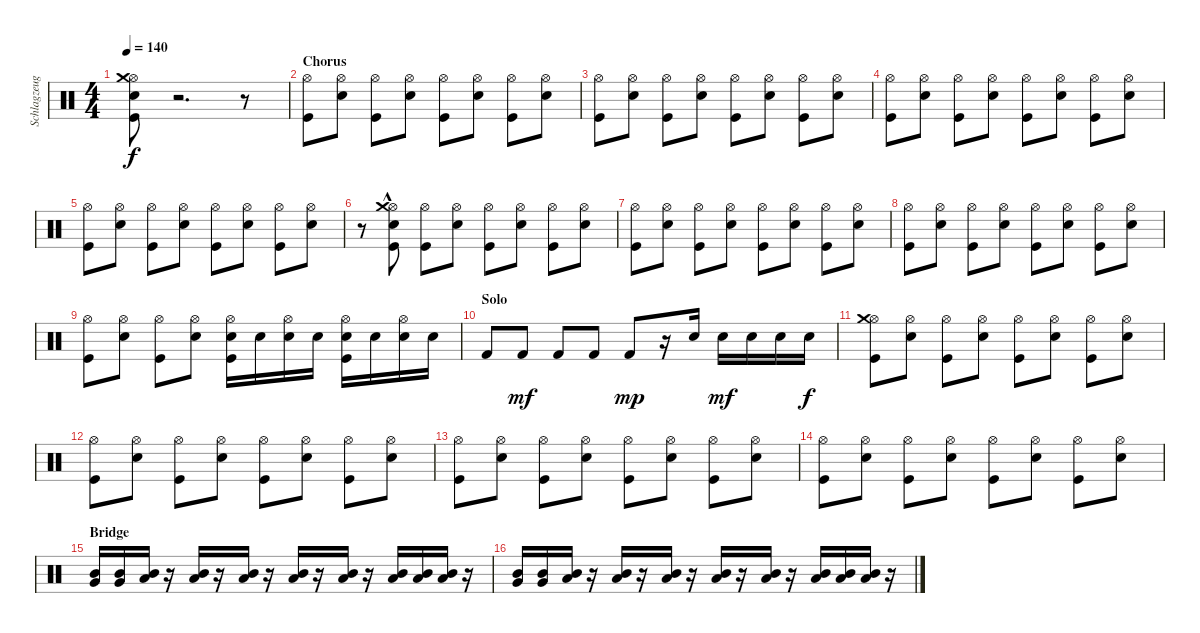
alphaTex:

\track ("Schlagzeug - Bela B." "Schlagzeug") {instrument percussion}
\staff {score}
\articulation defaults
\ts (4 4)
\tempo 140
\clef neutral
\ks c
("Kick (hit)" "Hi-Hat (open)" "Electric Snare (hit)" "Crash medium (hit)").8{dy f} r.2{d} r.8 |
\section ("" "Chorus")
("Kick (hit)" "Hi-Hat (open)").8 ("Hi-Hat (open)" "Electric Snare (hit)").8 ("Hi-Hat (open)" "Kick (hit)").8 ("Hi-Hat (open)" "Electric Snare (hit)").8 ("Kick (hit)" "Hi-Hat (open)").8 ("Hi-Hat (open)" "Electric Snare (hit)").8 ("Hi-Hat (open)" "Kick (hit)").8 ("Hi-Hat (open)" "Electric Snare (hit)").8 |
("Kick (hit)" "Hi-Hat (open)").8 ("Hi-Hat (open)" "Electric Snare (hit)").8 ("Hi-Hat (open)" "Kick (hit)").8 ("Hi-Hat (open)" "Electric Snare (hit)").8 ("Kick (hit)" "Hi-Hat (open)").8 ("Hi-Hat (open)" "Electric Snare (hit)").8 ("Hi-Hat (open)" "Kick (hit)").8 ("Hi-Hat (open)" "Electric Snare (hit)").8 |
("Kick (hit)" "Hi-Hat (open)").8 ("Hi-Hat (open)" "Electric Snare (hit)").8 ("Hi-Hat (open)" "Kick (hit)").8 ("Hi-Hat (open)" "Electric Snare (hit)").8 ("Kick (hit)" "Hi-Hat (open)").8 ("Hi-Hat (open)" "Electric Snare (hit)").8 ("Hi-Hat (open)" "Kick (hit)").8 ("Hi-Hat (open)" "Electric Snare (hit)").8 |
("Kick (hit)" "Hi-Hat (open)").8 ("Hi-Hat (open)" "Electric Snare (hit)").8 ("Hi-Hat (open)" "Kick (hit)").8 ("Hi-Hat (open)" "Electric Snare (hit)").8 ("Kick (hit)" "Hi-Hat (open)").8 ("Hi-Hat (open)" "Electric Snare (hit)").8 ("Hi-Hat (open)" "Kick (hit)").8 ("Hi-Hat (open)" "Electric Snare (hit)").8 |
r.8 ("Hi-Hat (open)" "Electric Snare (hit)" "Crash medium (hit)"{hac} "Kick (hit)").8 ("Hi-Hat (open)" "Kick (hit)").8 ("Hi-Hat (open)" "Electric Snare (hit)").8 ("Kick (hit)" "Hi-Hat (open)").8 ("Hi-Hat (open)" "Electric Snare (hit)").8 ("Hi-Hat (open)" "Kick (hit)").8 ("Hi-Hat (open)" "Electric Snare (hit)").8 |
("Kick (hit)" "Hi-Hat (open)").8 ("Hi-Hat (open)" "Electric Snare (hit)").8 ("Hi-Hat (open)" "Kick (hit)").8 ("Hi-Hat (open)" "Electric Snare (hit)").8 ("Kick (hit)" "Hi-Hat (open)").8 ("Hi-Hat (open)" "Electric Snare (hit)").8 ("Hi-Hat (open)" "Kick (hit)").8 ("Hi-Hat (open)" "Electric Snare (hit)").8 |
("Kick (hit)" "Hi-Hat (open)").8 ("Hi-Hat (open)" "Electric Snare (hit)").8 ("Hi-Hat (open)" "Kick (hit)").8 ("Hi-Hat (open)" "Electric Snare (hit)").8 ("Kick (hit)" "Hi-Hat (open)").8 ("Hi-Hat (open)" "Electric Snare (hit)").8 ("Hi-Hat (open)" "Kick (hit)").8 ("Hi-Hat (open)" "Electric Snare (hit)").8 |
("Kick (hit)" "Hi-Hat (open)").8 ("Hi-Hat (open)" "Electric Snare (hit)").8 ("Hi-Hat (open)" "Kick (hit)").8 ("Hi-Hat (open)" "Electric Snare (hit)").8 ("Kick (hit)" "Hi-Hat (open)" "Electric Snare (hit)").16 "Electric Snare (hit)".16 ("Hi-Hat (open)" "Electric Snare (hit)").16 "Electric Snare (hit)".16 ("Hi-Hat (open)" "Kick (hit)" "Electric Snare (hit)").16 "Electric Snare (hit)".16 ("Hi-Hat (open)" "Electric Snare (hit)").16 "Electric Snare (hit)".16 |
\section ("" "Solo")
"Kick (hit) 2".8 "Kick (hit) 2".8{dy mf} "Kick (hit) 2".8 "Kick (hit) 2".8 "Kick (hit) 2".8{dy mp} r.16 "Electric Snare (hit)".16 "Electric Snare (hit)".16{dy mf} "Electric Snare (hit)".16 "Electric Snare (hit)".16 "Electric Snare (hit)".16{dy f} |
("Kick (hit)" "Hi-Hat (open)" "Crash medium (hit)").8 ("Hi-Hat (open)" "Electric Snare (hit)").8 ("Hi-Hat (open)" "Kick (hit)").8 ("Hi-Hat (open)" "Electric Snare (hit)").8 ("Kick (hit)" "Hi-Hat (open)").8 ("Hi-Hat (open)" "Electric Snare (hit)").8 ("Hi-Hat (open)" "Kick (hit)").8 ("Hi-Hat (open)" "Electric Snare (hit)").8 |
("Kick (hit)" "Hi-Hat (open)").8 ("Hi-Hat (open)" "Electric Snare (hit)").8 ("Hi-Hat (open)" "Kick (hit)").8 ("Hi-Hat (open)" "Electric Snare (hit)").8 ("Kick (hit)" "Hi-Hat (open)").8 ("Hi-Hat (open)" "Electric Snare (hit)").8 ("Hi-Hat (open)" "Kick (hit)").8 ("Hi-Hat (open)" "Electric Snare (hit)").8 |
("Kick (hit)" "Hi-Hat (open)").8 ("Hi-Hat (open)" "Electric Snare (hit)").8 ("Hi-Hat (open)" "Kick (hit)").8 ("Hi-Hat (open)" "Electric Snare (hit)").8 ("Kick (hit)" "Hi-Hat (open)").8 ("Hi-Hat (open)" "Electric Snare (hit)").8 ("Hi-Hat (open)" "Kick (hit)").8 ("Hi-Hat (open)" "Electric Snare (hit)").8 |
("Kick (hit)" "Hi-Hat (open)").8 ("Hi-Hat (open)" "Electric Snare (hit)").8 ("Hi-Hat (open)" "Kick (hit)").8 ("Hi-Hat (open)" "Electric Snare (hit)").8 ("Kick (hit)" "Hi-Hat (open)").8 ("Hi-Hat (open)" "Electric Snare (hit)").8 ("Hi-Hat (open)" "Kick (hit)").8 ("Hi-Hat (open)" "Electric Snare (hit)").8 |
\section ("" "Bridge")
("Very Low Tom (hit)" "Mid Tom (hit)").16 ("Very Low Tom (hit)" "Mid Tom (hit)").16 ("Low Tom (hit)" "Mid Tom (hit)").16 r.16 ("Low Tom (hit)" "Mid Tom (hit)").16 r.16 ("Low Tom (hit)" "Mid Tom (hit)").16 r.16 ("Low Tom (hit)" "Mid Tom (hit)").16 r.16 ("Low Tom (hit)" "Mid Tom (hit)").16 r.16 ("Low Tom (hit)" "Mid Tom (hit)").16 ("Low Tom (hit)" "Mid Tom (hit)").16 ("Low Tom (hit)" "Mid Tom (hit)").16 r.16 |
("Very Low Tom (hit)" "Mid Tom (hit)").16 ("Very Low Tom (hit)" "Mid Tom (hit)").16 ("Low Tom (hit)" "Mid Tom (hit)").16 r.16 ("Low Tom (hit)" "Mid Tom (hit)").16 r.16 ("Low Tom (hit)" "Mid Tom (hit)").16 r.16 ("Low Tom (hit)" "Mid Tom (hit)").16 r.16 ("Low Tom (hit)" "Mid Tom (hit)").16 r.16 ("Low Tom (hit)" "Mid Tom (hit)").16 ("Low Tom (hit)" "Mid Tom (hit)").16 ("Low Tom (hit)" "Mid Tom (hit)").16 r.16
